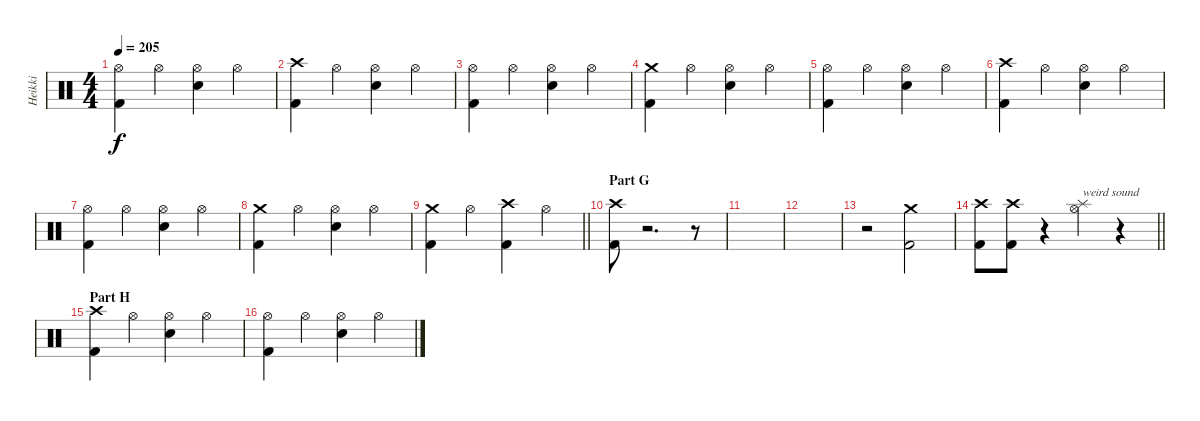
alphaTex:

\track ("Heikki" "Heikki") {instrument percussion}
\staff {score}
\articulation defaults
\ts (4 4)
\tempo 205
\clef neutral
\ks c
("Hi-Hat (open)" "Kick (hit) 2").4{dy f} "Hi-Hat (open)".4 ("Hi-Hat (open)" "Electric Snare (hit)").4 "Hi-Hat (open)".4 |
("Crash high (hit)" "Kick (hit) 2").4 "Hi-Hat (open)".4 ("Hi-Hat (open)" "Electric Snare (hit)").4 "Hi-Hat (open)".4 |
("Hi-Hat (open)" "Kick (hit) 2").4 "Hi-Hat (open)".4 ("Hi-Hat (open)" "Electric Snare (hit)").4 "Hi-Hat (open)".4 |
("Crash medium (hit)" "Kick (hit) 2").4 "Hi-Hat (open)".4 ("Hi-Hat (open)" "Electric Snare (hit)").4 "Hi-Hat (open)".4 |
("Hi-Hat (open)" "Kick (hit) 2").4 "Hi-Hat (open)".4 ("Hi-Hat (open)" "Electric Snare (hit)").4 "Hi-Hat (open)".4 |
("Crash high (hit)" "Kick (hit) 2").4 "Hi-Hat (open)".4 ("Hi-Hat (open)" "Electric Snare (hit)").4 "Hi-Hat (open)".4 |
("Hi-Hat (open)" "Kick (hit) 2").4 "Hi-Hat (open)".4 ("Hi-Hat (open)" "Electric Snare (hit)").4 "Hi-Hat (open)".4 |
("Crash medium (hit)" "Kick (hit) 2").4 "Hi-Hat (open)".4 ("Hi-Hat (open)" "Electric Snare (hit)").4 "Hi-Hat (open)".4 |
\barLineRight lightlight
("Crash medium (hit)" "Kick (hit) 2").4 "Hi-Hat (open)".4 ("Crash high (hit)" "Kick (hit) 2").4 "Hi-Hat (open)".4 |
\section ("" "Part G")
("Crash high (hit)" "Kick (hit) 2").8 r.2{d} r.8 |
|
|
r.2 ("Crash medium (hit)" "Kick (hit) 2").2 |
\barLineRight lightlight
("Crash high (hit)" "Kick (hit) 2").8 ("Crash high (hit)" "Kick (hit) 2").8 r.4 ("Hi-Hat (open)" "Splash (hit)").4{txt "weird sound"} r.4 |
\section ("" "Part H")
("Crash high (hit)" "Kick (hit) 2").4 "Hi-Hat (open)".4 ("Hi-Hat (open)" "Electric Snare (hit)").4 "Hi-Hat (open)".4 |
("Hi-Hat (open)" "Kick (hit) 2").4 "Hi-Hat (open)".4 ("Hi-Hat (open)" "Electric Snare (hit)").4 "Hi-Hat (open)".4
